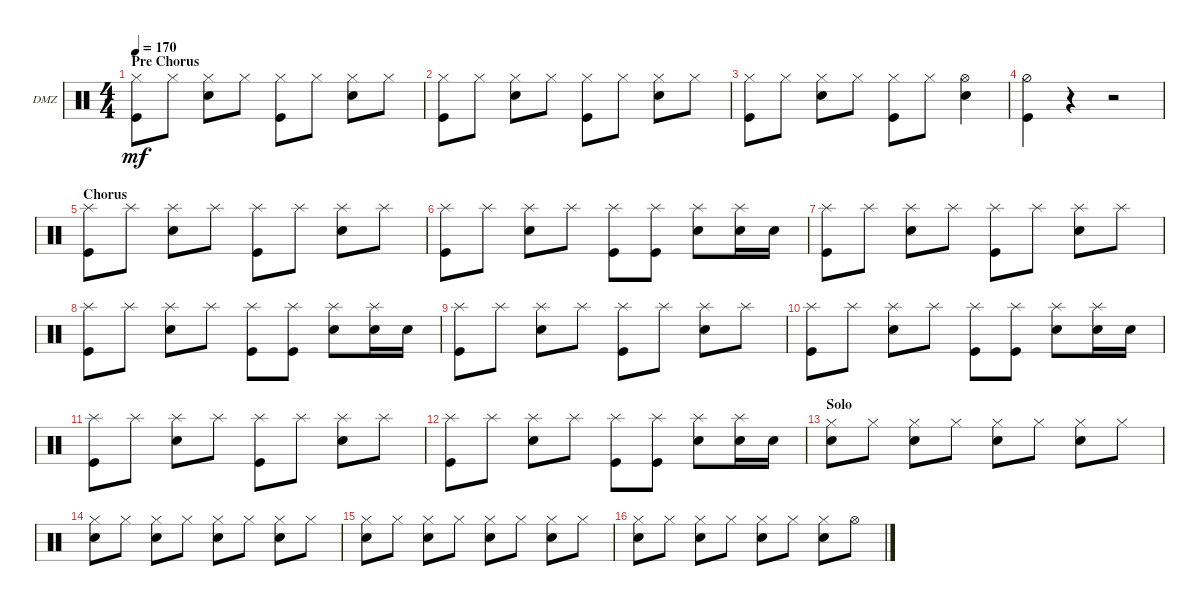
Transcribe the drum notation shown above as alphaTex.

\defaultSystemsLayout 4
\bracketExtendMode groupsimilarinstruments
\firstSystemTrackNameOrientation horizontal
\otherSystemsTrackNameOrientation horizontal
\track ("Drumz" "DMZ") {instrument percussion}
\staff {score}
\articulation defaults
\ts (4 4)
\section ("" "Pre Chorus")
\tempo 170
\clef neutral
\ks c
("Hi-Hat (closed)" "Kick (hit)").8{dy mf} "Hi-Hat (closed)".8 ("Hi-Hat (closed)" "Snare (hit) 2").8 "Hi-Hat (closed)".8 ("Hi-Hat (closed)" "Kick (hit)").8 "Hi-Hat (closed)".8 ("Hi-Hat (closed)" "Snare (hit) 2").8 "Hi-Hat (closed)".8 |
("Hi-Hat (closed)" "Kick (hit)").8 "Hi-Hat (closed)".8 ("Hi-Hat (closed)" "Snare (hit) 2").8 "Hi-Hat (closed)".8 ("Hi-Hat (closed)" "Kick (hit)").8 "Hi-Hat (closed)".8 ("Hi-Hat (closed)" "Snare (hit) 2").8 "Hi-Hat (closed)".8 |
("Hi-Hat (closed)" "Kick (hit)").8 "Hi-Hat (closed)".8 ("Hi-Hat (closed)" "Snare (hit) 2").8 "Hi-Hat (closed)".8 ("Hi-Hat (closed)" "Kick (hit)").8 "Hi-Hat (closed)".8 ("Hi-Hat (open)" "Snare (hit) 2").4 |
("Kick (hit)" "Hi-Hat (half)").4 r.4 r.2 |
\section ("" "Chorus")
("Splash (hit)" "Kick (hit)").8 "Splash (hit)".8 ("Splash (hit)" "Snare (hit) 2").8 "Splash (hit)".8 ("Splash (hit)" "Kick (hit)").8 "Splash (hit)".8 ("Splash (hit)" "Snare (hit) 2").8 "Splash (hit)".8 |
("Splash (hit)" "Kick (hit)").8 "Splash (hit)".8 ("Splash (hit)" "Snare (hit) 2").8 "Splash (hit)".8 ("Splash (hit)" "Kick (hit)").8 ("Splash (hit)" "Kick (hit)").8 ("Splash (hit)" "Snare (hit) 2").8 ("Snare (hit) 2" "Splash (hit)").16 "Snare (hit) 2".16 |
("Splash (hit)" "Kick (hit)").8 "Splash (hit)".8 ("Splash (hit)" "Snare (hit) 2").8 "Splash (hit)".8 ("Splash (hit)" "Kick (hit)").8 "Splash (hit)".8 ("Splash (hit)" "Snare (hit) 2").8 "Splash (hit)".8 |
("Splash (hit)" "Kick (hit)").8 "Splash (hit)".8 ("Splash (hit)" "Snare (hit) 2").8 "Splash (hit)".8 ("Splash (hit)" "Kick (hit)").8 ("Splash (hit)" "Kick (hit)").8 ("Splash (hit)" "Snare (hit) 2").8 ("Snare (hit) 2" "Splash (hit)").16 "Snare (hit) 2".16 |
("Splash (hit)" "Kick (hit)").8 "Splash (hit)".8 ("Splash (hit)" "Snare (hit) 2").8 "Splash (hit)".8 ("Splash (hit)" "Kick (hit)").8 "Splash (hit)".8 ("Splash (hit)" "Snare (hit) 2").8 "Splash (hit)".8 |
("Splash (hit)" "Kick (hit)").8 "Splash (hit)".8 ("Splash (hit)" "Snare (hit) 2").8 "Splash (hit)".8 ("Splash (hit)" "Kick (hit)").8 ("Splash (hit)" "Kick (hit)").8 ("Splash (hit)" "Snare (hit) 2").8 ("Snare (hit) 2" "Splash (hit)").16 "Snare (hit) 2".16 |
("Splash (hit)" "Kick (hit)").8 "Splash (hit)".8 ("Splash (hit)" "Snare (hit) 2").8 "Splash (hit)".8 ("Splash (hit)" "Kick (hit)").8 "Splash (hit)".8 ("Splash (hit)" "Snare (hit) 2").8 "Splash (hit)".8 |
("Splash (hit)" "Kick (hit)").8 "Splash (hit)".8 ("Splash (hit)" "Snare (hit) 2").8 "Splash (hit)".8 ("Splash (hit)" "Kick (hit)").8 ("Splash (hit)" "Kick (hit)").8 ("Splash (hit)" "Snare (hit) 2").8 ("Snare (hit) 2" "Splash (hit)").16 "Snare (hit) 2".16 |
\section ("" "Solo")
("Hi-Hat (closed)" "Snare (hit) 2").8 "Hi-Hat (closed)".8 ("Hi-Hat (closed)" "Snare (hit) 2").8 "Hi-Hat (closed)".8 ("Hi-Hat (closed)" "Snare (hit) 2").8 "Hi-Hat (closed)".8 ("Hi-Hat (closed)" "Snare (hit) 2").8 "Hi-Hat (closed)".8 |
("Hi-Hat (closed)" "Snare (hit) 2").8 "Hi-Hat (closed)".8 ("Hi-Hat (closed)" "Snare (hit) 2").8 "Hi-Hat (closed)".8 ("Hi-Hat (closed)" "Snare (hit) 2").8 "Hi-Hat (closed)".8 ("Hi-Hat (closed)" "Snare (hit) 2").8 "Hi-Hat (closed)".8 |
("Hi-Hat (closed)" "Snare (hit) 2").8 "Hi-Hat (closed)".8 ("Hi-Hat (closed)" "Snare (hit) 2").8 "Hi-Hat (closed)".8 ("Hi-Hat (closed)" "Snare (hit) 2").8 "Hi-Hat (closed)".8 ("Hi-Hat (closed)" "Snare (hit) 2").8 "Hi-Hat (closed)".8 |
("Hi-Hat (closed)" "Snare (hit) 2").8 "Hi-Hat (closed)".8 ("Hi-Hat (closed)" "Snare (hit) 2").8 "Hi-Hat (closed)".8 ("Hi-Hat (closed)" "Snare (hit) 2").8 "Hi-Hat (closed)".8 ("Hi-Hat (closed)" "Snare (hit) 2").8 "Hi-Hat (open)".8
